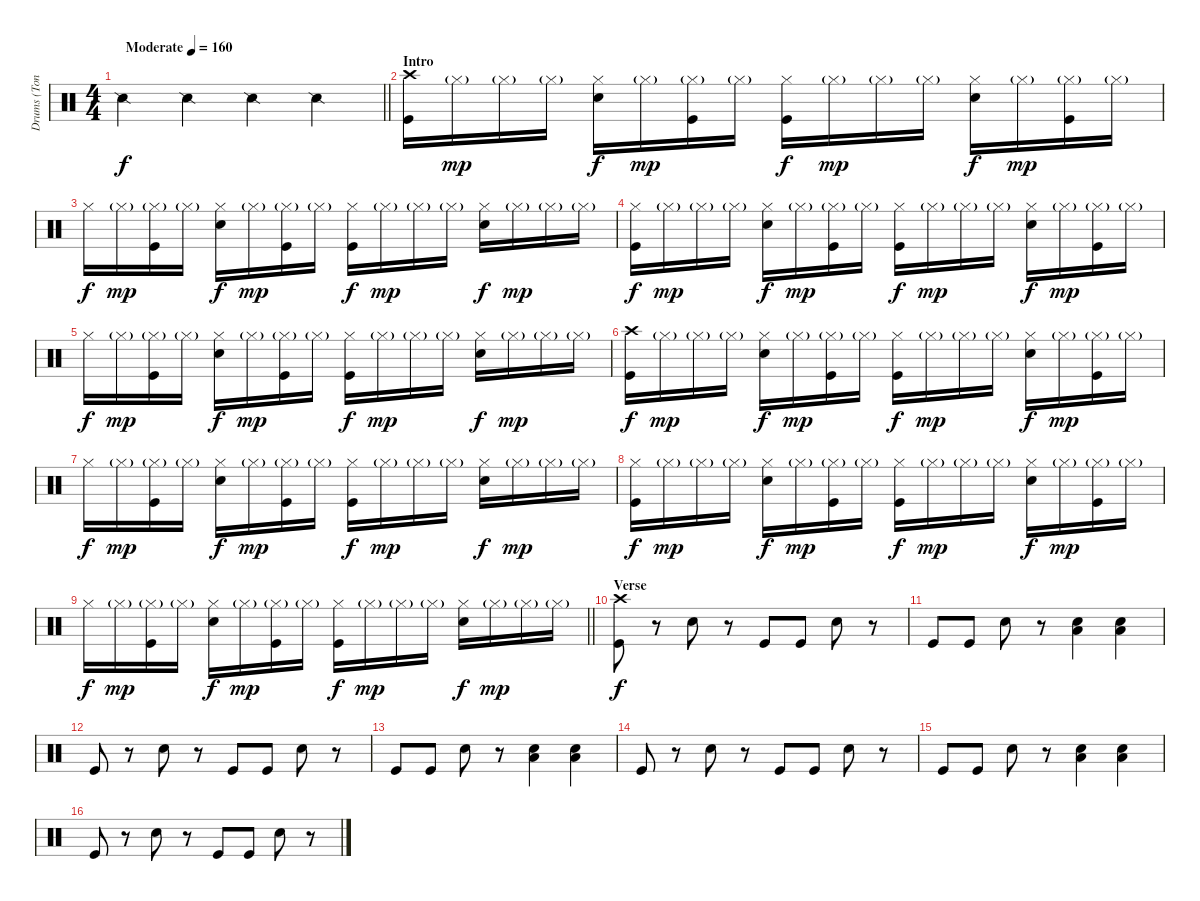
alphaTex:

\track ("Drums (Tony)" "Drums (Ton") {instrument percussion}
\staff {score}
\articulation defaults
\ts (4 4)
\tempo (160 "Moderate")
\clef neutral
\barLineRight lightlight
\ks c "Snare (side stick) 2".4{dy f} "Snare (side stick) 2".4 "Snare (side stick) 2".4 "Snare (side stick) 2".4
|
\section ("" "Intro")
("Crash high (hit)" "Kick (hit)").16 "Hi-Hat (closed)"{g}.16{dy mp} "Hi-Hat (closed)"{g}.16 "Hi-Hat (closed)"{g}.16 ("Hi-Hat (closed)" "Snare (hit) 2").16{dy f} "Hi-Hat (closed)"{g}.16{dy mp} ("Hi-Hat (closed)"{g} "Kick (hit)").16 "Hi-Hat (closed)"{g}.16 ("Hi-Hat (closed)" "Kick (hit)").16{dy f} "Hi-Hat (closed)"{g}.16{dy mp} "Hi-Hat (closed)"{g}.16 "Hi-Hat (closed)"{g}.16 ("Hi-Hat (closed)" "Snare (hit) 2").16{dy f} "Hi-Hat (closed)"{g}.16{dy mp} ("Hi-Hat (closed)"{g} "Kick (hit)").16 "Hi-Hat (closed)"{g}.16 |
"Hi-Hat (closed)".16{dy f} "Hi-Hat (closed)"{g}.16{dy mp} ("Hi-Hat (closed)"{g} "Kick (hit)").16 "Hi-Hat (closed)"{g}.16 ("Hi-Hat (closed)" "Snare (hit) 2").16{dy f} "Hi-Hat (closed)"{g}.16{dy mp} ("Hi-Hat (closed)"{g} "Kick (hit)").16 "Hi-Hat (closed)"{g}.16 ("Hi-Hat (closed)" "Kick (hit)").16{dy f} "Hi-Hat (closed)"{g}.16{dy mp} "Hi-Hat (closed)"{g}.16 "Hi-Hat (closed)"{g}.16 ("Hi-Hat (closed)" "Snare (hit) 2").16{dy f} "Hi-Hat (closed)"{g}.16{dy mp} "Hi-Hat (closed)"{g}.16 "Hi-Hat (closed)"{g}.16 |
("Hi-Hat (closed)" "Kick (hit)").16{dy f} "Hi-Hat (closed)"{g}.16{dy mp} "Hi-Hat (closed)"{g}.16 "Hi-Hat (closed)"{g}.16 ("Hi-Hat (closed)" "Snare (hit) 2").16{dy f} "Hi-Hat (closed)"{g}.16{dy mp} ("Hi-Hat (closed)"{g} "Kick (hit)").16 "Hi-Hat (closed)"{g}.16 ("Hi-Hat (closed)" "Kick (hit)").16{dy f} "Hi-Hat (closed)"{g}.16{dy mp} "Hi-Hat (closed)"{g}.16 "Hi-Hat (closed)"{g}.16 ("Hi-Hat (closed)" "Snare (hit) 2").16{dy f} "Hi-Hat (closed)"{g}.16{dy mp} ("Hi-Hat (closed)"{g} "Kick (hit)").16 "Hi-Hat (closed)"{g}.16 |
"Hi-Hat (closed)".16{dy f} "Hi-Hat (closed)"{g}.16{dy mp} ("Hi-Hat (closed)"{g} "Kick (hit)").16 "Hi-Hat (closed)"{g}.16 ("Hi-Hat (closed)" "Snare (hit) 2").16{dy f} "Hi-Hat (closed)"{g}.16{dy mp} ("Hi-Hat (closed)"{g} "Kick (hit)").16 "Hi-Hat (closed)"{g}.16 ("Hi-Hat (closed)" "Kick (hit)").16{dy f} "Hi-Hat (closed)"{g}.16{dy mp} "Hi-Hat (closed)"{g}.16 "Hi-Hat (closed)"{g}.16 ("Hi-Hat (closed)" "Snare (hit) 2").16{dy f} "Hi-Hat (closed)"{g}.16{dy mp} "Hi-Hat (closed)"{g}.16 "Hi-Hat (closed)"{g}.16 |
("Crash high (hit)" "Kick (hit)").16{dy f} "Hi-Hat (closed)"{g}.16{dy mp} "Hi-Hat (closed)"{g}.16 "Hi-Hat (closed)"{g}.16 ("Hi-Hat (closed)" "Snare (hit) 2").16{dy f} "Hi-Hat (closed)"{g}.16{dy mp} ("Hi-Hat (closed)"{g} "Kick (hit)").16 "Hi-Hat (closed)"{g}.16 ("Hi-Hat (closed)" "Kick (hit)").16{dy f} "Hi-Hat (closed)"{g}.16{dy mp} "Hi-Hat (closed)"{g}.16 "Hi-Hat (closed)"{g}.16 ("Hi-Hat (closed)" "Snare (hit) 2").16{dy f} "Hi-Hat (closed)"{g}.16{dy mp} ("Hi-Hat (closed)"{g} "Kick (hit)").16 "Hi-Hat (closed)"{g}.16 |
"Hi-Hat (closed)".16{dy f} "Hi-Hat (closed)"{g}.16{dy mp} ("Hi-Hat (closed)"{g} "Kick (hit)").16 "Hi-Hat (closed)"{g}.16 ("Hi-Hat (closed)" "Snare (hit) 2").16{dy f} "Hi-Hat (closed)"{g}.16{dy mp} ("Hi-Hat (closed)"{g} "Kick (hit)").16 "Hi-Hat (closed)"{g}.16 ("Hi-Hat (closed)" "Kick (hit)").16{dy f} "Hi-Hat (closed)"{g}.16{dy mp} "Hi-Hat (closed)"{g}.16 "Hi-Hat (closed)"{g}.16 ("Hi-Hat (closed)" "Snare (hit) 2").16{dy f} "Hi-Hat (closed)"{g}.16{dy mp} "Hi-Hat (closed)"{g}.16 "Hi-Hat (closed)"{g}.16 |
("Hi-Hat (closed)" "Kick (hit)").16{dy f} "Hi-Hat (closed)"{g}.16{dy mp} "Hi-Hat (closed)"{g}.16 "Hi-Hat (closed)"{g}.16 ("Hi-Hat (closed)" "Snare (hit) 2").16{dy f} "Hi-Hat (closed)"{g}.16{dy mp} ("Hi-Hat (closed)"{g} "Kick (hit)").16 "Hi-Hat (closed)"{g}.16 ("Hi-Hat (closed)" "Kick (hit)").16{dy f} "Hi-Hat (closed)"{g}.16{dy mp} "Hi-Hat (closed)"{g}.16 "Hi-Hat (closed)"{g}.16 ("Hi-Hat (closed)" "Snare (hit) 2").16{dy f} "Hi-Hat (closed)"{g}.16{dy mp} ("Hi-Hat (closed)"{g} "Kick (hit)").16 "Hi-Hat (closed)"{g}.16 |
\barLineRight lightlight "Hi-Hat (closed)".16{dy f} "Hi-Hat (closed)"{g}.16{dy mp}
("Hi-Hat (closed)"{g} "Kick (hit)").16 "Hi-Hat (closed)"{g}.16 ("Hi-Hat (closed)" "Snare (hit) 2").16{dy f} "Hi-Hat (closed)"{g}.16{dy mp} ("Hi-Hat (closed)"{g} "Kick (hit)").16 "Hi-Hat (closed)"{g}.16 ("Hi-Hat (closed)" "Kick (hit)").16{dy f} "Hi-Hat (closed)"{g}.16{dy mp} "Hi-Hat (closed)"{g}.16 "Hi-Hat (closed)"{g}.16 ("Hi-Hat (closed)" "Snare (hit) 2").16{dy f} "Hi-Hat (closed)"{g}.16{dy mp} "Hi-Hat (closed)"{g}.16 "Hi-Hat (closed)"{g}.16 |
\section ("" "Verse")
("Crash high (hit)" "Kick (hit)").8{dy f} r.8 "Snare (hit) 2".8 r.8 "Kick (hit)".8 "Kick (hit)".8 "Snare (hit) 2".8 r.8 |
"Kick (hit)".8 "Kick (hit)".8 "Snare (hit) 2".8 r.8 ("Low Floor Tom (hit)" "Snare (hit) 2").4 ("Low Floor Tom (hit)" "Snare (hit) 2").4 |
"Kick (hit)".8 r.8 "Snare (hit) 2".8 r.8 "Kick (hit)".8 "Kick (hit)".8 "Snare (hit) 2".8 r.8 |
"Kick (hit)".8 "Kick (hit)".8 "Snare (hit) 2".8 r.8 ("Low Floor Tom (hit)" "Snare (hit) 2").4 ("Low Floor Tom (hit)" "Snare (hit) 2").4 |
"Kick (hit)".8 r.8 "Snare (hit) 2".8 r.8 "Kick (hit)".8 "Kick (hit)".8 "Snare (hit) 2".8 r.8 |
"Kick (hit)".8 "Kick (hit)".8 "Snare (hit) 2".8 r.8 ("Low Floor Tom (hit)" "Snare (hit) 2").4 ("Low Floor Tom (hit)" "Snare (hit) 2").4 |
"Kick (hit)".8 r.8 "Snare (hit) 2".8 r.8 "Kick (hit)".8 "Kick (hit)".8 "Snare (hit) 2".8 r.8
